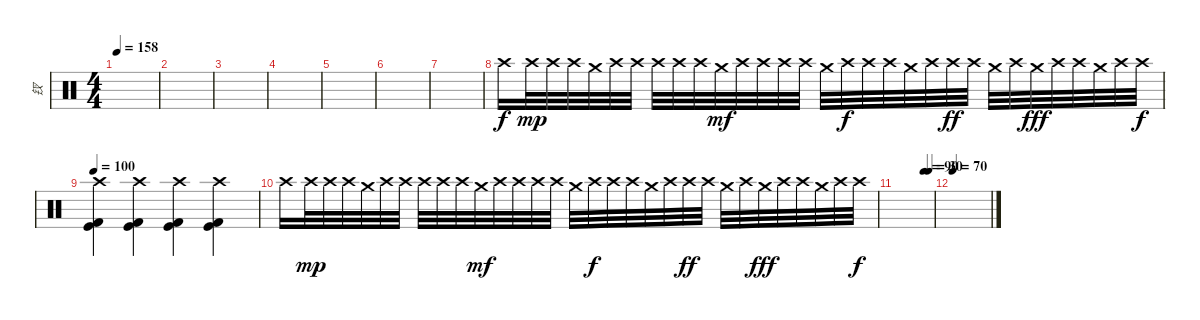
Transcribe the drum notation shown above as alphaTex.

\track ("钗" "钗") {instrument percussion}
\staff {score}
\articulation defaults
\ts (4 4)
\tempo 158
\clef neutral
\ks c
|
|
|
|
|
|
|
"Crash high (hit)".16 "Crash high (hit)".32{dy mp} "Crash high (hit)".32 "Crash high (hit)".32 "Crash medium (hit)".32 "Crash high (hit)".32 "Crash high (hit)".32 "Crash high (hit)".32 "Crash high (hit)".32 "Crash high (hit)".32 "Crash medium (hit)".32{dy mf} "Crash high (hit)".32 "Crash high (hit)".32 "Crash high (hit)".32 "Crash high (hit)".32 "Crash medium (hit)".32 "Crash high (hit)".32{dy f} "Crash high (hit)".32 "Crash high (hit)".32 "Crash medium (hit)".32 "Crash high (hit)".32 "Crash high (hit)".32{dy ff} "Crash high (hit)".32 "Crash medium (hit)".32 "Crash high (hit)".32 "Crash medium (hit)".32{dy fff} "Crash high (hit)".32 "Crash high (hit)".32 "Crash medium (hit)".32 "Crash high (hit)".32 "Crash high (hit)".32{dy f} |
\tempo 100
("Crash high (hit)" "Kick (hit) 2" "Kick (hit)").4 ("Crash high (hit)" "Kick (hit) 2" "Kick (hit)").4 ("Crash high (hit)" "Kick (hit) 2" "Kick (hit)").4 ("Crash high (hit)" "Kick (hit) 2" "Kick (hit)").4 |
"Crash high (hit)".16 "Crash high (hit)".32{dy mp} "Crash high (hit)".32 "Crash high (hit)".32 "Crash medium (hit)".32 "Crash high (hit)".32 "Crash high (hit)".32 "Crash high (hit)".32 "Crash high (hit)".32 "Crash high (hit)".32 "Crash medium (hit)".32{dy mf} "Crash high (hit)".32 "Crash high (hit)".32 "Crash high (hit)".32 "Crash high (hit)".32 "Crash medium (hit)".32 "Crash high (hit)".32{dy f} "Crash high (hit)".32 "Crash high (hit)".32 "Crash medium (hit)".32 "Crash high (hit)".32 "Crash high (hit)".32{dy ff} "Crash high (hit)".32 "Crash medium (hit)".32 "Crash high (hit)".32 "Crash medium (hit)".32{dy fff} "Crash high (hit)".32 "Crash high (hit)".32 "Crash medium (hit)".32 "Crash high (hit)".32 "Crash high (hit)".32{dy f} |
\tempo (30 0.875)
\tempo (90 0.75)
|
\tempo 70
